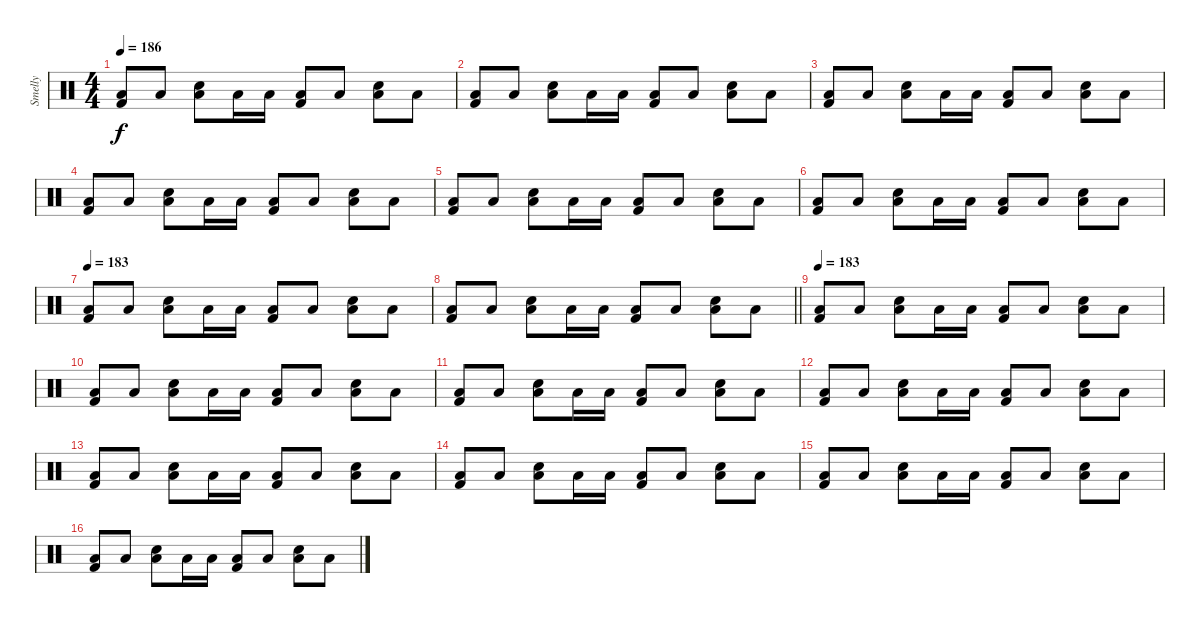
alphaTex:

\track ("Smelly" "Smelly") {instrument percussion}
\staff {score}
\articulation defaults
\ts (4 4)
\section ("" "")
\tempo 186
\clef neutral
\ks c
("Low Floor Tom (hit)" "Kick (hit) 2").8{dy f} "Low Floor Tom (hit)".8 ("Electric Snare (hit)" "Low Floor Tom (hit)").8 "Low Floor Tom (hit)".16 "Low Tom (hit)".16 ("Low Floor Tom (hit)" "Kick (hit) 2").8 "Low Floor Tom (hit)".8 ("Electric Snare (hit)" "Low Floor Tom (hit)").8 "Low Floor Tom (hit)".8 |
("Low Floor Tom (hit)" "Kick (hit) 2").8 "Low Floor Tom (hit)".8 ("Electric Snare (hit)" "Low Floor Tom (hit)").8 "Low Floor Tom (hit)".16 "Low Tom (hit)".16 ("Low Floor Tom (hit)" "Kick (hit) 2").8 "Low Floor Tom (hit)".8 ("Electric Snare (hit)" "Low Floor Tom (hit)").8 "Low Floor Tom (hit)".8 |
("Low Floor Tom (hit)" "Kick (hit) 2").8 "Low Floor Tom (hit)".8 ("Electric Snare (hit)" "Low Floor Tom (hit)").8 "Low Floor Tom (hit)".16 "Low Tom (hit)".16 ("Low Floor Tom (hit)" "Kick (hit) 2").8 "Low Floor Tom (hit)".8 ("Electric Snare (hit)" "Low Floor Tom (hit)").8 "Low Floor Tom (hit)".8 |
("Low Floor Tom (hit)" "Kick (hit) 2").8 "Low Floor Tom (hit)".8 ("Electric Snare (hit)" "Low Floor Tom (hit)").8 "Low Floor Tom (hit)".16 "Low Tom (hit)".16 ("Low Floor Tom (hit)" "Kick (hit) 2").8 "Low Floor Tom (hit)".8 ("Electric Snare (hit)" "Low Floor Tom (hit)").8 "Low Floor Tom (hit)".8 |
("Low Floor Tom (hit)" "Kick (hit) 2").8 "Low Floor Tom (hit)".8 ("Electric Snare (hit)" "Low Floor Tom (hit)").8 "Low Floor Tom (hit)".16 "Low Tom (hit)".16 ("Low Floor Tom (hit)" "Kick (hit) 2").8 "Low Floor Tom (hit)".8 ("Electric Snare (hit)" "Low Floor Tom (hit)").8 "Low Floor Tom (hit)".8 |
("Low Floor Tom (hit)" "Kick (hit) 2").8 "Low Floor Tom (hit)".8 ("Electric Snare (hit)" "Low Floor Tom (hit)").8 "Low Floor Tom (hit)".16 "Low Tom (hit)".16 ("Low Floor Tom (hit)" "Kick (hit) 2").8 "Low Floor Tom (hit)".8 ("Electric Snare (hit)" "Low Floor Tom (hit)").8 "Low Floor Tom (hit)".8 |
\tempo 183
("Low Floor Tom (hit)" "Kick (hit) 2").8 "Low Floor Tom (hit)".8 ("Electric Snare (hit)" "Low Floor Tom (hit)").8 "Low Floor Tom (hit)".16 "Low Tom (hit)".16 ("Low Floor Tom (hit)" "Kick (hit) 2").8 "Low Floor Tom (hit)".8 ("Electric Snare (hit)" "Low Floor Tom (hit)").8 "Low Floor Tom (hit)".8 |
\barLineRight lightlight
("Low Floor Tom (hit)" "Kick (hit) 2").8 "Low Floor Tom (hit)".8 ("Electric Snare (hit)" "Low Floor Tom (hit)").8 "Low Floor Tom (hit)".16 "Low Tom (hit)".16 ("Low Floor Tom (hit)" "Kick (hit) 2").8 "Low Floor Tom (hit)".8 ("Electric Snare (hit)" "Low Floor Tom (hit)").8 "Low Floor Tom (hit)".8 |
\section ("" "")
\tempo 183
("Low Floor Tom (hit)" "Kick (hit) 2").8 "Low Floor Tom (hit)".8 ("Electric Snare (hit)" "Low Floor Tom (hit)").8 "Low Floor Tom (hit)".16 "Low Tom (hit)".16 ("Low Floor Tom (hit)" "Kick (hit) 2").8 "Low Floor Tom (hit)".8 ("Electric Snare (hit)" "Low Floor Tom (hit)").8 "Low Floor Tom (hit)".8 |
("Low Floor Tom (hit)" "Kick (hit) 2").8 "Low Floor Tom (hit)".8 ("Electric Snare (hit)" "Low Floor Tom (hit)").8 "Low Floor Tom (hit)".16 "Low Tom (hit)".16 ("Low Floor Tom (hit)" "Kick (hit) 2").8 "Low Floor Tom (hit)".8 ("Electric Snare (hit)" "Low Floor Tom (hit)").8 "Low Floor Tom (hit)".8 |
("Low Floor Tom (hit)" "Kick (hit) 2").8 "Low Floor Tom (hit)".8 ("Electric Snare (hit)" "Low Floor Tom (hit)").8 "Low Floor Tom (hit)".16 "Low Tom (hit)".16 ("Low Floor Tom (hit)" "Kick (hit) 2").8 "Low Floor Tom (hit)".8 ("Electric Snare (hit)" "Low Floor Tom (hit)").8 "Low Floor Tom (hit)".8 |
("Low Floor Tom (hit)" "Kick (hit) 2").8 "Low Floor Tom (hit)".8 ("Electric Snare (hit)" "Low Floor Tom (hit)").8 "Low Floor Tom (hit)".16 "Low Tom (hit)".16 ("Low Floor Tom (hit)" "Kick (hit) 2").8 "Low Floor Tom (hit)".8 ("Electric Snare (hit)" "Low Floor Tom (hit)").8 "Low Floor Tom (hit)".8 |
("Low Floor Tom (hit)" "Kick (hit) 2").8 "Low Floor Tom (hit)".8 ("Electric Snare (hit)" "Low Floor Tom (hit)").8 "Low Floor Tom (hit)".16 "Low Tom (hit)".16 ("Low Floor Tom (hit)" "Kick (hit) 2").8 "Low Floor Tom (hit)".8 ("Electric Snare (hit)" "Low Floor Tom (hit)").8 "Low Floor Tom (hit)".8 |
("Low Floor Tom (hit)" "Kick (hit) 2").8 "Low Floor Tom (hit)".8 ("Electric Snare (hit)" "Low Floor Tom (hit)").8 "Low Floor Tom (hit)".16 "Low Tom (hit)".16 ("Low Floor Tom (hit)" "Kick (hit) 2").8 "Low Floor Tom (hit)".8 ("Electric Snare (hit)" "Low Floor Tom (hit)").8 "Low Floor Tom (hit)".8 |
("Low Floor Tom (hit)" "Kick (hit) 2").8 "Low Floor Tom (hit)".8 ("Electric Snare (hit)" "Low Floor Tom (hit)").8 "Low Floor Tom (hit)".16 "Low Tom (hit)".16 ("Low Floor Tom (hit)" "Kick (hit) 2").8 "Low Floor Tom (hit)".8 ("Electric Snare (hit)" "Low Floor Tom (hit)").8 "Low Floor Tom (hit)".8 |
("Low Floor Tom (hit)" "Kick (hit) 2").8 "Low Floor Tom (hit)".8 ("Electric Snare (hit)" "Low Floor Tom (hit)").8 "Low Floor Tom (hit)".16 "Low Tom (hit)".16 ("Low Floor Tom (hit)" "Kick (hit) 2").8 "Low Floor Tom (hit)".8 ("Electric Snare (hit)" "Low Floor Tom (hit)").8 "Low Floor Tom (hit)".8
